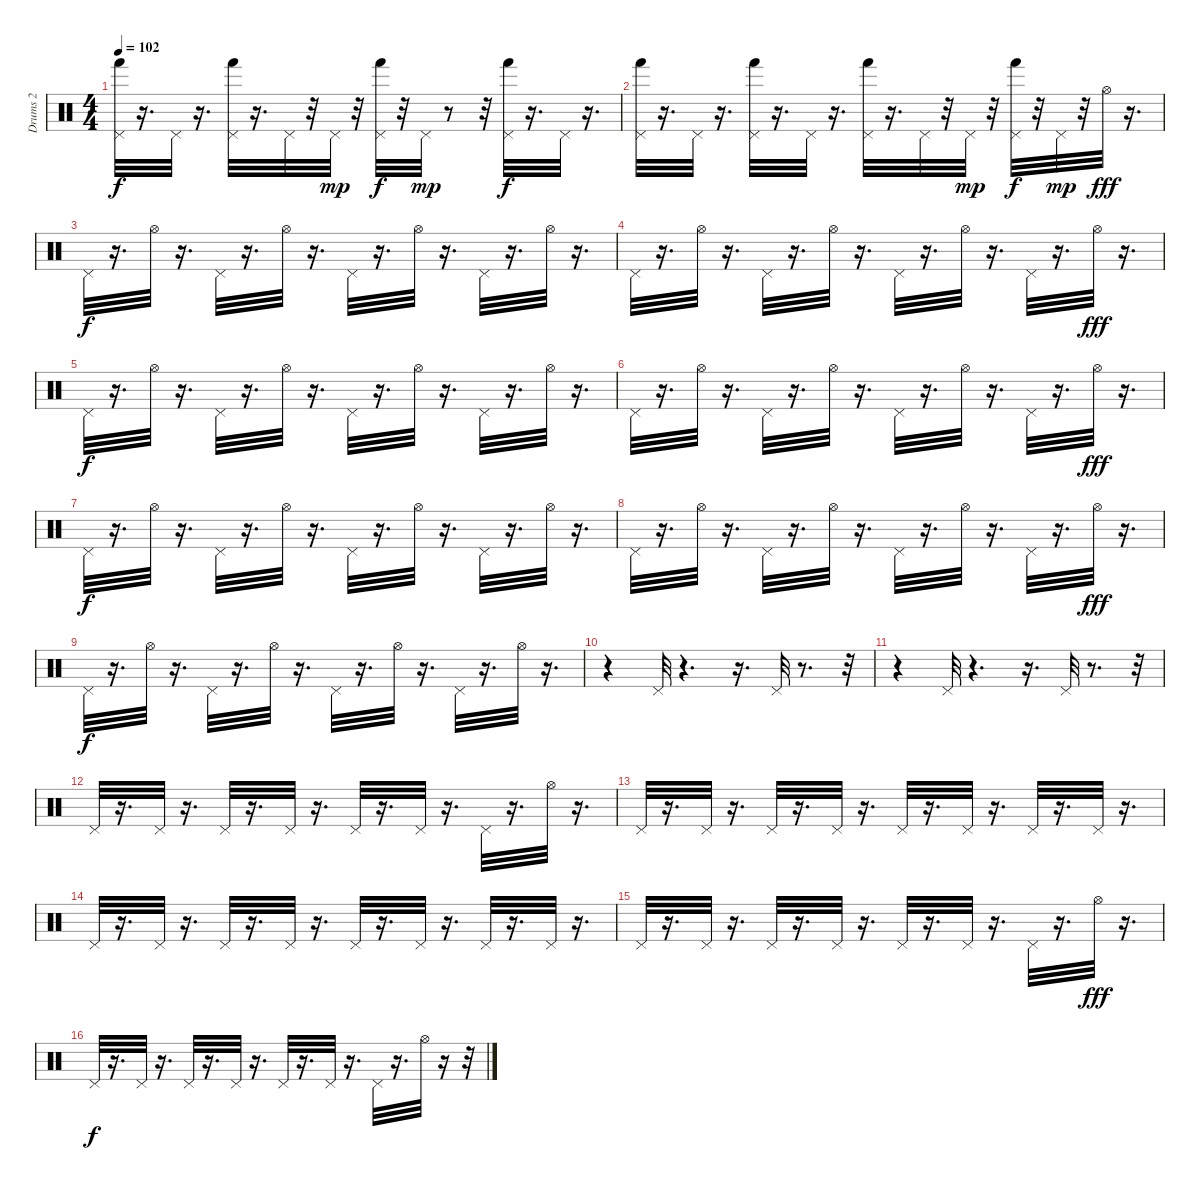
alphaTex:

\track ("Drums 2" "Drums 2") {instrument percussion}
\staff {score}
\articulation defaults
\ts (4 4)
\tempo 102
\clef neutral
\ks c
("Hand (hit)" "Pedal Hi-Hat (hit)").32{dy f} r.16{d} "Pedal Hi-Hat (hit)".32 r.16{d} ("Hand (hit)" "Pedal Hi-Hat (hit)").32 r.16{d} "Pedal Hi-Hat (hit)".32 r.32 "Pedal Hi-Hat (hit)".32{dy mp} r.32 ("Hand (hit)" "Pedal Hi-Hat (hit)").32{dy f} r.32 "Pedal Hi-Hat (hit)".32{dy mp} r.8 r.32 ("Hand (hit)" "Pedal Hi-Hat (hit)").32{dy f} r.16{d} "Pedal Hi-Hat (hit)".32 r.16{d} |
("Hand (hit)" "Pedal Hi-Hat (hit)").32 r.16{d} "Pedal Hi-Hat (hit)".32 r.16{d} ("Hand (hit)" "Pedal Hi-Hat (hit)").32 r.16{d} "Pedal Hi-Hat (hit)".32 r.16{d} ("Hand (hit)" "Pedal Hi-Hat (hit)").32 r.16{d} "Pedal Hi-Hat (hit)".32 r.32 "Pedal Hi-Hat (hit)".32{dy mp} r.32 ("Hand (hit)" "Pedal Hi-Hat (hit)").32{dy f} r.32 "Pedal Hi-Hat (hit)".32{dy mp} r.32 "Hi-Hat (open)".32{dy fff} r.16{d} |
"Pedal Hi-Hat (hit)".32{dy f} r.16{d} "Hi-Hat (open)".32 r.16{d} "Pedal Hi-Hat (hit)".32 r.16{d} "Hi-Hat (open)".32 r.16{d} "Pedal Hi-Hat (hit)".32 r.16{d} "Hi-Hat (open)".32 r.16{d} "Pedal Hi-Hat (hit)".32 r.16{d} "Hi-Hat (open)".32 r.16{d} |
"Pedal Hi-Hat (hit)".32 r.16{d} "Hi-Hat (open)".32 r.16{d} "Pedal Hi-Hat (hit)".32 r.16{d} "Hi-Hat (open)".32 r.16{d} "Pedal Hi-Hat (hit)".32 r.16{d} "Hi-Hat (open)".32 r.16{d} "Pedal Hi-Hat (hit)".32 r.16{d} "Hi-Hat (open)".32{dy fff} r.16{d} |
"Pedal Hi-Hat (hit)".32{dy f} r.16{d} "Hi-Hat (open)".32 r.16{d} "Pedal Hi-Hat (hit)".32 r.16{d} "Hi-Hat (open)".32 r.16{d} "Pedal Hi-Hat (hit)".32 r.16{d} "Hi-Hat (open)".32 r.16{d} "Pedal Hi-Hat (hit)".32 r.16{d} "Hi-Hat (open)".32 r.16{d} |
"Pedal Hi-Hat (hit)".32 r.16{d} "Hi-Hat (open)".32 r.16{d} "Pedal Hi-Hat (hit)".32 r.16{d} "Hi-Hat (open)".32 r.16{d} "Pedal Hi-Hat (hit)".32 r.16{d} "Hi-Hat (open)".32 r.16{d} "Pedal Hi-Hat (hit)".32 r.16{d} "Hi-Hat (open)".32{dy fff} r.16{d} |
"Pedal Hi-Hat (hit)".32{dy f} r.16{d} "Hi-Hat (open)".32 r.16{d} "Pedal Hi-Hat (hit)".32 r.16{d} "Hi-Hat (open)".32 r.16{d} "Pedal Hi-Hat (hit)".32 r.16{d} "Hi-Hat (open)".32 r.16{d} "Pedal Hi-Hat (hit)".32 r.16{d} "Hi-Hat (open)".32 r.16{d} |
"Pedal Hi-Hat (hit)".32 r.16{d} "Hi-Hat (open)".32 r.16{d} "Pedal Hi-Hat (hit)".32 r.16{d} "Hi-Hat (open)".32 r.16{d} "Pedal Hi-Hat (hit)".32 r.16{d} "Hi-Hat (open)".32 r.16{d} "Pedal Hi-Hat (hit)".32 r.16{d} "Hi-Hat (open)".32{dy fff} r.16{d} |
"Pedal Hi-Hat (hit)".32{dy f} r.16{d} "Hi-Hat (open)".32 r.16{d} "Pedal Hi-Hat (hit)".32 r.16{d} "Hi-Hat (open)".32 r.16{d} "Pedal Hi-Hat (hit)".32 r.16{d} "Hi-Hat (open)".32 r.16{d} "Pedal Hi-Hat (hit)".32 r.16{d} "Hi-Hat (open)".32 r.16{d} |
r.4 "Pedal Hi-Hat (hit)".32 r.4{d} r.16{d} "Pedal Hi-Hat (hit)".32 r.8{d} r.32 |
r.4 "Pedal Hi-Hat (hit)".32 r.4{d} r.16{d} "Pedal Hi-Hat (hit)".32 r.8{d} r.32 |
"Pedal Hi-Hat (hit)".32 r.16{d} "Pedal Hi-Hat (hit)".32 r.16{d} "Pedal Hi-Hat (hit)".32 r.16{d} "Pedal Hi-Hat (hit)".32 r.16{d} "Pedal Hi-Hat (hit)".32 r.16{d} "Pedal Hi-Hat (hit)".32 r.16{d} "Pedal Hi-Hat (hit)".32 r.16{d} "Hi-Hat (open)".32 r.16{d} |
"Pedal Hi-Hat (hit)".32 r.16{d} "Pedal Hi-Hat (hit)".32 r.16{d} "Pedal Hi-Hat (hit)".32 r.16{d} "Pedal Hi-Hat (hit)".32 r.16{d} "Pedal Hi-Hat (hit)".32 r.16{d} "Pedal Hi-Hat (hit)".32 r.16{d} "Pedal Hi-Hat (hit)".32 r.16{d} "Pedal Hi-Hat (hit)".32 r.16{d} |
"Pedal Hi-Hat (hit)".32 r.16{d} "Pedal Hi-Hat (hit)".32 r.16{d} "Pedal Hi-Hat (hit)".32 r.16{d} "Pedal Hi-Hat (hit)".32 r.16{d} "Pedal Hi-Hat (hit)".32 r.16{d} "Pedal Hi-Hat (hit)".32 r.16{d} "Pedal Hi-Hat (hit)".32 r.16{d} "Pedal Hi-Hat (hit)".32 r.16{d} |
"Pedal Hi-Hat (hit)".32 r.16{d} "Pedal Hi-Hat (hit)".32{volume 15} r.16{d} "Pedal Hi-Hat (hit)".32{volume 14} r.16{d} "Pedal Hi-Hat (hit)".32{volume 13} r.16{d} "Pedal Hi-Hat (hit)".32{volume 12} r.16{d} "Pedal Hi-Hat (hit)".32{volume 11} r.16{d} "Pedal Hi-Hat (hit)".32{volume 10} r.16{d} "Hi-Hat (open)".32{dy fff volume 9} r.16{d} |
"Pedal Hi-Hat (hit)".32{dy f volume 8} r.16{d} "Pedal Hi-Hat (hit)".32{volume 7} r.16{d} "Pedal Hi-Hat (hit)".32{volume 6} r.16{d} "Pedal Hi-Hat (hit)".32{volume 5} r.16{d} "Pedal Hi-Hat (hit)".32{volume 4} r.16{d} "Pedal Hi-Hat (hit)".32{volume 3} r.16{d} "Pedal Hi-Hat (hit)".32{volume 2} r.16{d} "Hi-Hat (open)".32{volume 1} r.16 r.32
